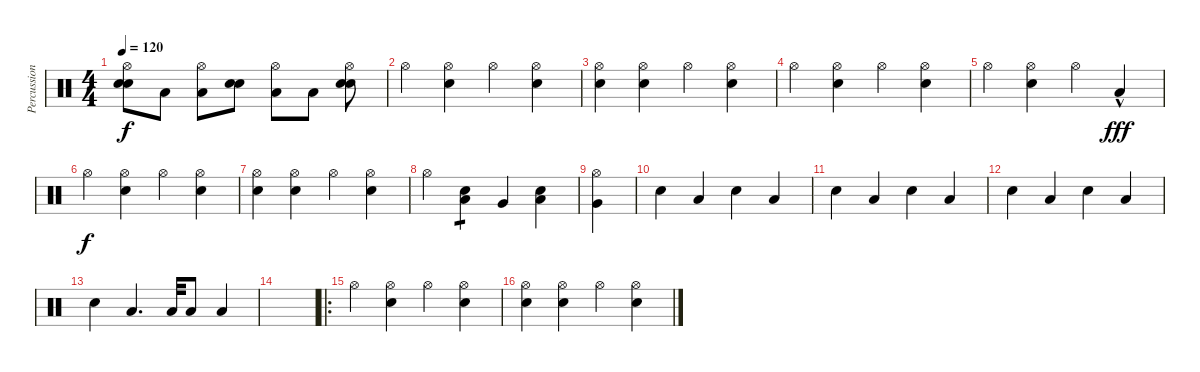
\track ("Percussion" "Percussion") {instrument percussion}
\staff {score}
\articulation defaults
\ts (4 4)
\tempo 120
\clef neutral
\ks c
("Hi-Hat (open)" "Snare (hit) 2" "Electric Snare (hit)").8{dy f} "Low Tom (hit)".8 ("Hi-Hat (open)" "Low Tom (hit)").8 ("Snare (hit) 2" "Electric Snare (hit)").8 ("Hi-Hat (open)" "Low Tom (hit)").8 "Low Tom (hit)".8 ("Hi-Hat (open)" "Snare (hit) 2" "Electric Snare (hit)").8 |
"Hi-Hat (open)".4 ("Hi-Hat (open)" "Snare (hit) 2").4 "Hi-Hat (open)".4 ("Hi-Hat (open)" "Snare (hit) 2").4 |
("Hi-Hat (open)" "Snare (hit)").4 ("Hi-Hat (open)" "Snare (hit) 2").4 "Hi-Hat (open)".4 ("Hi-Hat (open)" "Snare (hit) 2").4 |
"Hi-Hat (open)".4 ("Hi-Hat (open)" "Snare (hit) 2").4 "Hi-Hat (open)".4 ("Hi-Hat (open)" "Snare (hit) 2").4 |
"Hi-Hat (open)".4 ("Hi-Hat (open)" "Snare (hit) 2").4 "Hi-Hat (open)".4 "Low Tom (hit)"{hac}.4{dy fff} |
"Hi-Hat (open)".4{dy f} ("Hi-Hat (open)" "Snare (hit) 2").4 "Hi-Hat (open)".4 ("Hi-Hat (open)" "Snare (hit) 2").4 |
("Hi-Hat (open)" "Snare (hit)").4 ("Hi-Hat (open)" "Snare (hit) 2").4 "Hi-Hat (open)".4 ("Hi-Hat (open)" "Snare (hit) 2").4 |
"Hi-Hat (open)".4 ("Low Tom (hit)" "Snare (hit) 2").4{tp 1} "Very Low Tom (hit)".4 ("Low Tom (hit)" "Snare (hit) 2").4 |
("Hi-Hat (open)" "Very Low Tom (hit)").4 |
"Snare (hit)".4 "Low Tom (hit)".4 "Snare (hit)".4 "Low Tom (hit)".4 |
"Snare (hit)".4 "Low Tom (hit)".4 "Snare (hit)".4 "Low Tom (hit)".4 |
"Snare (hit)".4 "Low Tom (hit)".4 "Snare (hit)".4 "Low Tom (hit)".4 |
"Snare (hit)".4 "Low Tom (hit)".4{d} "Low Tom (hit)".32 "Low Tom (hit)".8 "Low Tom (hit)".4 |
|
\ro "Hi-Hat (open)".4
("Hi-Hat (open)" "Snare (hit) 2").4 "Hi-Hat (open)".4 ("Hi-Hat (open)" "Snare (hit) 2").4 |
("Hi-Hat (open)" "Snare (hit)").4 ("Hi-Hat (open)" "Snare (hit) 2").4 "Hi-Hat (open)".4 ("Hi-Hat (open)" "Snare (hit) 2").4
